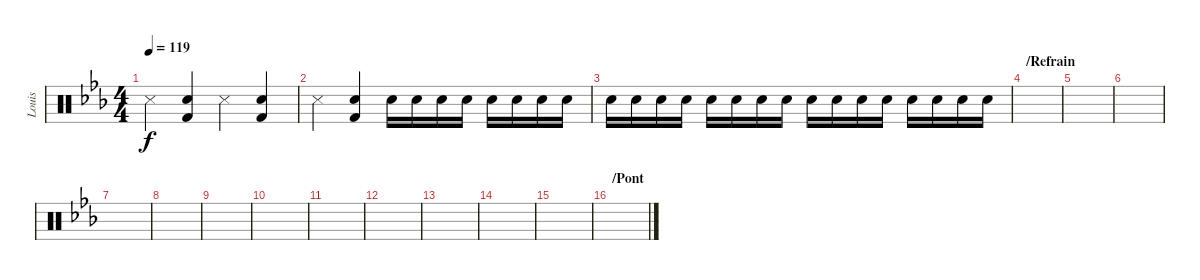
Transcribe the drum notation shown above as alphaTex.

\track ("Louis" "Louis") {instrument percussion}
\staff {score}
\articulation defaults
\ts (4 4)
\tempo 119
\clef neutral
\ks cminor "Metronome (hit)".4{dy f}
("Kick (hit) 2" "Snare (hit) 2").4 "Metronome (hit)".4 ("Kick (hit) 2" "Snare (hit) 2").4 |
"Metronome (hit)".4 ("Kick (hit) 2" "Snare (hit) 2").4 "Snare (hit) 2".16 "Snare (hit) 2".16 "Snare (hit) 2".16 "Snare (hit) 2".16 "Snare (hit) 2".16 "Snare (hit) 2".16 "Snare (hit) 2".16 "Snare (hit) 2".16 |
"Snare (hit) 2".16 "Snare (hit) 2".16 "Snare (hit) 2".16 "Snare (hit) 2".16 "Snare (hit) 2".16 "Snare (hit) 2".16 "Snare (hit) 2".16 "Snare (hit) 2".16 "Snare (hit) 2".16 "Snare (hit) 2".16 "Snare (hit) 2".16 "Snare (hit) 2".16 "Snare (hit) 2".16 "Snare (hit) 2".16 "Snare (hit) 2".16 "Snare (hit) 2".16 |
\section ("" "/Refrain")
|
|
|
|
|
|
|
|
|
|
|
|
\section ("" "/Pont")
